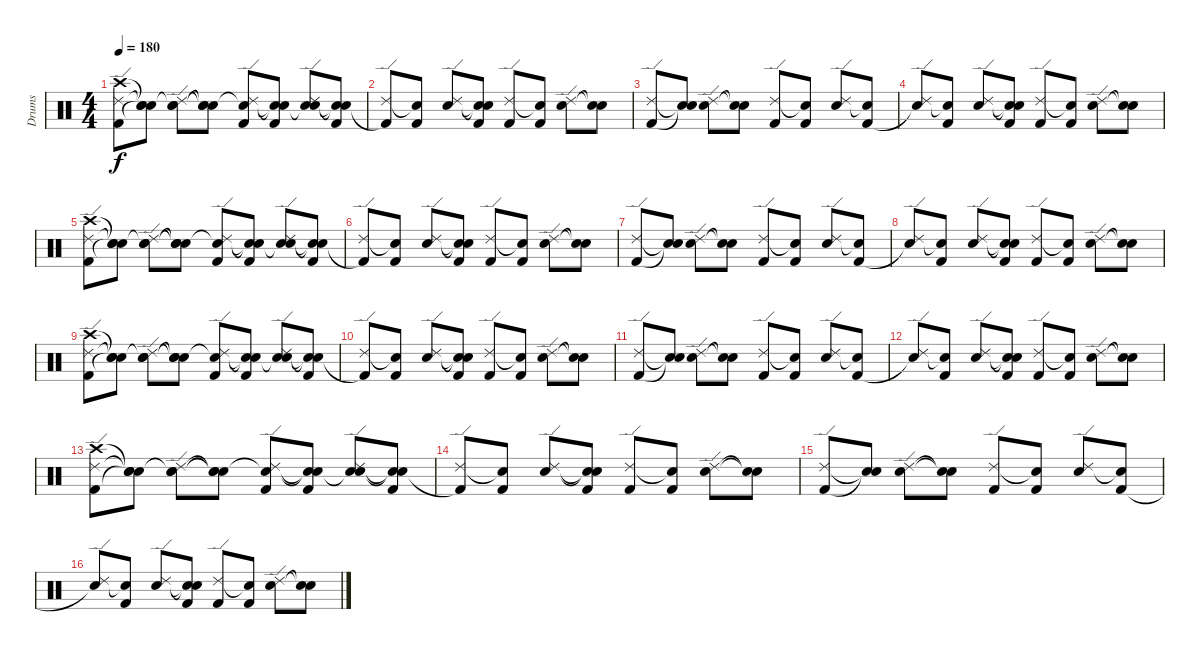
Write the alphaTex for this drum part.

\track ("Drums" "Drums") {instrument percussion}
\staff {score}
\articulation defaults
\ts (4 4)
\tempo 180
\clef neutral
\ks c
("Crash high (hit)" "Ride (edge) 2" "Kick (hit) 2").8{dy f} ("Snare (hit)"{t} "Snare (hit)"{t} "Snare (hit)"{t}).8 ("Snare (hit)"{t} "Ride (edge) 2" "Electric Snare (hit)").8 ("Snare (hit)"{t} "Snare (hit)"{t} "Snare (hit)"{t}).8 ("Snare (hit)"{t} "Ride (edge) 2" "Kick (hit) 2").8 ("Snare (hit)"{t} "Snare (hit)"{t} "Kick (hit) 2").8 ("Snare (hit)"{t} "Ride (edge) 2" "Electric Snare (hit)").8 ("Snare (hit)"{t} "Snare (hit)"{t} "Kick (hit) 2").8 |
("Ride (edge) 2" "Kick (hit) 2"{t}).8 ("Snare (hit)"{t} "Kick (hit) 2").8 ("Ride (edge) 2" "Electric Snare (hit)").8 ("Snare (hit)"{t} "Snare (hit)"{t} "Kick (hit) 2").8 ("Ride (edge) 2" "Kick (hit) 2").8 ("Snare (hit)"{t} "Kick (hit) 2").8 ("Ride (edge) 2" "Electric Snare (hit)").8 ("Snare (hit)"{t} "Snare (hit)"{t}).8 |
("Ride (edge) 2" "Kick (hit) 2").8 ("Snare (hit)"{t} "Snare (hit)"{t}).8 ("Ride (edge) 2" "Electric Snare (hit)").8 ("Snare (hit)"{t} "Snare (hit)"{t}).8 ("Ride (edge) 2" "Kick (hit) 2").8 ("Snare (hit)"{t} "Kick (hit) 2").8 ("Ride (edge) 2" "Electric Snare (hit)").8 ("Snare (hit)"{t} "Kick (hit) 2").8 |
("Ride (edge) 2" "Snare (hit)"{t}).8 ("Snare (hit)"{t} "Kick (hit) 2").8 ("Ride (edge) 2" "Electric Snare (hit)").8 ("Snare (hit)"{t} "Snare (hit)"{t} "Kick (hit) 2").8 ("Ride (edge) 2" "Kick (hit) 2").8 ("Snare (hit)"{t} "Kick (hit) 2").8 ("Ride (edge) 2" "Electric Snare (hit)").8 ("Snare (hit)"{t} "Snare (hit)"{t}).8 |
("Crash high (hit)" "Ride (edge) 2" "Kick (hit) 2").8 ("Snare (hit)"{t} "Snare (hit)"{t} "Snare (hit)"{t}).8 ("Snare (hit)"{t} "Ride (edge) 2" "Electric Snare (hit)").8 ("Snare (hit)"{t} "Snare (hit)"{t} "Snare (hit)"{t}).8 ("Snare (hit)"{t} "Ride (edge) 2" "Kick (hit) 2").8 ("Snare (hit)"{t} "Snare (hit)"{t} "Kick (hit) 2").8 ("Snare (hit)"{t} "Ride (edge) 2" "Electric Snare (hit)").8 ("Snare (hit)"{t} "Snare (hit)"{t} "Kick (hit) 2").8 |
("Ride (edge) 2" "Kick (hit) 2"{t}).8 ("Snare (hit)"{t} "Kick (hit) 2").8 ("Ride (edge) 2" "Electric Snare (hit)").8 ("Snare (hit)"{t} "Snare (hit)"{t} "Kick (hit) 2").8 ("Ride (edge) 2" "Kick (hit) 2").8 ("Snare (hit)"{t} "Kick (hit) 2").8 ("Ride (edge) 2" "Electric Snare (hit)").8 ("Snare (hit)"{t} "Snare (hit)"{t}).8 |
("Ride (edge) 2" "Kick (hit) 2").8 ("Snare (hit)"{t} "Snare (hit)"{t}).8 ("Ride (edge) 2" "Electric Snare (hit)").8 ("Snare (hit)"{t} "Snare (hit)"{t}).8 ("Ride (edge) 2" "Kick (hit) 2").8 ("Snare (hit)"{t} "Kick (hit) 2").8 ("Ride (edge) 2" "Electric Snare (hit)").8 ("Snare (hit)"{t} "Kick (hit) 2").8 |
("Ride (edge) 2" "Snare (hit)"{t}).8 ("Snare (hit)"{t} "Kick (hit) 2").8 ("Ride (edge) 2" "Electric Snare (hit)").8 ("Snare (hit)"{t} "Snare (hit)"{t} "Kick (hit) 2").8 ("Ride (edge) 2" "Kick (hit) 2").8 ("Snare (hit)"{t} "Kick (hit) 2").8 ("Ride (edge) 2" "Electric Snare (hit)").8 ("Snare (hit)"{t} "Snare (hit)"{t}).8 |
("Crash high (hit)" "Ride (edge) 2" "Kick (hit) 2").8 ("Snare (hit)"{t} "Snare (hit)"{t} "Snare (hit)"{t}).8 ("Snare (hit)"{t} "Ride (edge) 2" "Electric Snare (hit)").8 ("Snare (hit)"{t} "Snare (hit)"{t} "Snare (hit)"{t}).8 ("Snare (hit)"{t} "Ride (edge) 2" "Kick (hit) 2").8 ("Snare (hit)"{t} "Snare (hit)"{t} "Kick (hit) 2").8 ("Snare (hit)"{t} "Ride (edge) 2" "Electric Snare (hit)").8 ("Snare (hit)"{t} "Snare (hit)"{t} "Kick (hit) 2").8 |
("Ride (edge) 2" "Kick (hit) 2"{t}).8 ("Snare (hit)"{t} "Kick (hit) 2").8 ("Ride (edge) 2" "Electric Snare (hit)").8 ("Snare (hit)"{t} "Snare (hit)"{t} "Kick (hit) 2").8 ("Ride (edge) 2" "Kick (hit) 2").8 ("Snare (hit)"{t} "Kick (hit) 2").8 ("Ride (edge) 2" "Electric Snare (hit)").8 ("Snare (hit)"{t} "Snare (hit)"{t}).8 |
("Ride (edge) 2" "Kick (hit) 2").8 ("Snare (hit)"{t} "Snare (hit)"{t}).8 ("Ride (edge) 2" "Electric Snare (hit)").8 ("Snare (hit)"{t} "Snare (hit)"{t}).8 ("Ride (edge) 2" "Kick (hit) 2").8 ("Snare (hit)"{t} "Kick (hit) 2").8 ("Ride (edge) 2" "Electric Snare (hit)").8 ("Snare (hit)"{t} "Kick (hit) 2").8 |
("Ride (edge) 2" "Snare (hit)"{t}).8 ("Snare (hit)"{t} "Kick (hit) 2").8 ("Ride (edge) 2" "Electric Snare (hit)").8 ("Snare (hit)"{t} "Snare (hit)"{t} "Kick (hit) 2").8 ("Ride (edge) 2" "Kick (hit) 2").8 ("Snare (hit)"{t} "Kick (hit) 2").8 ("Ride (edge) 2" "Electric Snare (hit)").8 ("Snare (hit)"{t} "Snare (hit)"{t}).8 |
("Crash high (hit)" "Ride (edge) 2" "Kick (hit) 2").8 ("Snare (hit)"{t} "Snare (hit)"{t} "Snare (hit)"{t}).8 ("Snare (hit)"{t} "Ride (edge) 2" "Electric Snare (hit)").8 ("Snare (hit)"{t} "Snare (hit)"{t} "Snare (hit)"{t}).8 ("Snare (hit)"{t} "Ride (edge) 2" "Kick (hit) 2").8 ("Snare (hit)"{t} "Snare (hit)"{t} "Kick (hit) 2").8 ("Snare (hit)"{t} "Ride (edge) 2" "Electric Snare (hit)").8 ("Snare (hit)"{t} "Snare (hit)"{t} "Kick (hit) 2").8 |
("Ride (edge) 2" "Kick (hit) 2"{t}).8 ("Snare (hit)"{t} "Kick (hit) 2").8 ("Ride (edge) 2" "Electric Snare (hit)").8 ("Snare (hit)"{t} "Snare (hit)"{t} "Kick (hit) 2").8 ("Ride (edge) 2" "Kick (hit) 2").8 ("Snare (hit)"{t} "Kick (hit) 2").8 ("Ride (edge) 2" "Electric Snare (hit)").8 ("Snare (hit)"{t} "Snare (hit)"{t}).8 |
("Ride (edge) 2" "Kick (hit) 2").8 ("Snare (hit)"{t} "Snare (hit)"{t}).8 ("Ride (edge) 2" "Electric Snare (hit)").8 ("Snare (hit)"{t} "Snare (hit)"{t}).8 ("Ride (edge) 2" "Kick (hit) 2").8 ("Snare (hit)"{t} "Kick (hit) 2").8 ("Ride (edge) 2" "Electric Snare (hit)").8 ("Snare (hit)"{t} "Kick (hit) 2").8 |
("Ride (edge) 2" "Snare (hit)"{t}).8 ("Snare (hit)"{t} "Kick (hit) 2").8 ("Ride (edge) 2" "Electric Snare (hit)").8 ("Snare (hit)"{t} "Snare (hit)"{t} "Kick (hit) 2").8 ("Ride (edge) 2" "Kick (hit) 2").8 ("Snare (hit)"{t} "Kick (hit) 2").8 ("Ride (edge) 2" "Electric Snare (hit)").8 ("Snare (hit)"{t} "Snare (hit)"{t}).8
